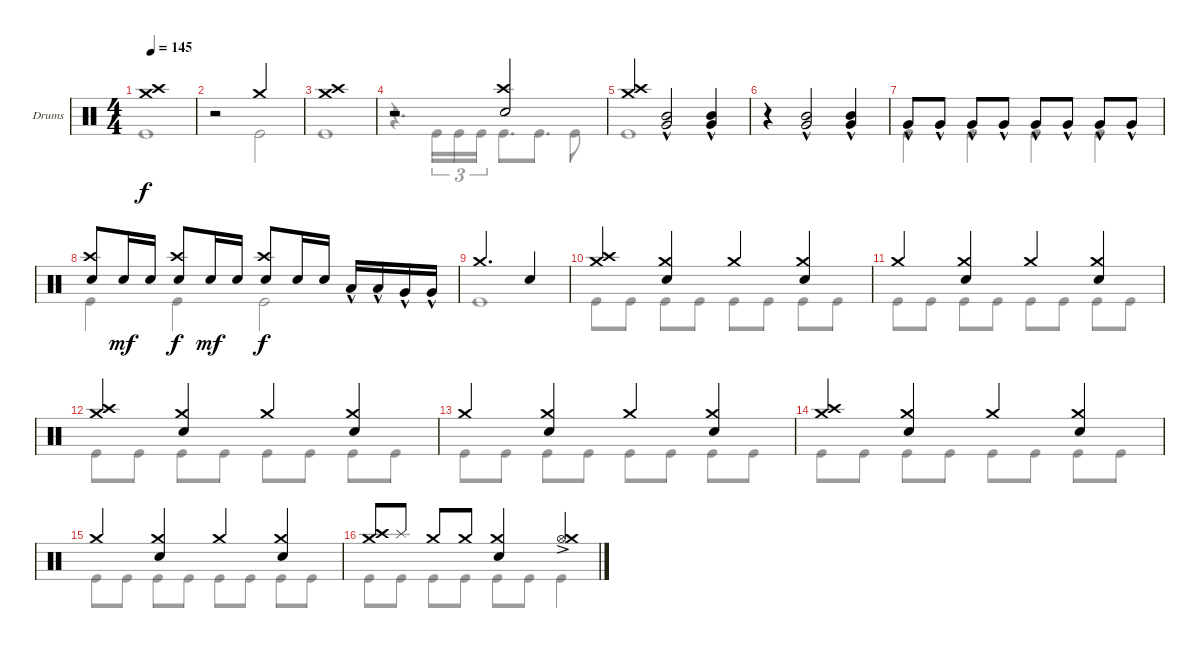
\defaultSystemsLayout 4
\bracketExtendMode groupsimilarinstruments
\firstSystemTrackNameOrientation horizontal
\otherSystemsTrackNameOrientation horizontal
\track ("Drumkit" "Drums") {instrument percussion}
\staff {score}
\articulation defaults
\voice
\ts (4 4)
\tempo 145
\clef neutral
\scale
1.02648
\ks c
("Crash medium (hit)" "Crash high (hit)").1{dy f} |
\scale
0.973518 r.2 "Crash medium (hit)".2 |
\scale
1.02648 ("Crash medium (hit)" "Crash high (hit)").1 |
\scale
0.973518 r.2 ("Crash high (hit)" "Snare (hit) 2").2 |
\scale
1.02648 ("Crash medium (hit)" "Crash high (hit)").4 ("Very Low Tom (hit)"{hac} "Mid Tom (hit)"{hac}).2 ("Mid Tom (hit)"{hac} "Very Low Tom (hit)"{hac}).4 |
\scale
0.973518 r.4 ("Very Low Tom (hit)"{hac} "Mid Tom (hit)"{hac}).2 ("Very Low Tom (hit)"{hac} "Mid Tom (hit)"{hac}).4 |
\scale
1.02648 "Very Low Tom (hit)"{hac}.8 "Very Low Tom (hit)"{hac}.8 "Very Low Tom (hit)"{hac}.8 "Very Low Tom (hit)"{hac}.8 "Very Low Tom (hit)"{hac}.8 "Very Low Tom (hit)"{hac}.8 "Very Low Tom (hit)"{hac}.8 "Very Low Tom (hit)"{hac}.8 |
\scale
0.973518 ("Snare (hit) 2" "Crash high (hit)").8 "Snare (hit) 2".16{dy mf} "Snare (hit) 2".16 ("Snare (hit) 2" "Crash high (hit)").8{dy f} "Snare (hit) 2".16{dy mf} "Snare (hit) 2".16 ("Snare (hit) 2" "Crash high (hit)").8{dy f} "Snare (hit) 2".16 "Snare (hit) 2".16 "Low Tom (hit)"{hac}.16 "Low Tom (hit)"{hac}.16 "Very Low Tom (hit)"{hac}.16 "Very Low Tom (hit)"{hac}.16 |
\scale
1.02648 "Crash medium (hit)".2{d} "Snare (hit) 2".4 |
\scale
0.973518 ("Crash medium (hit)" "Crash high (hit)").4 ("Crash medium (hit)" "Snare (hit) 2").4 "Crash medium (hit)".4 ("Crash medium (hit)" "Snare (hit) 2").4 |
\scale
1.02648 "Crash medium (hit)".4 ("Crash medium (hit)" "Snare (hit) 2").4 "Crash medium (hit)".4 ("Crash medium (hit)" "Snare (hit) 2").4 |
\scale
0.973518 ("Crash medium (hit)" "Crash high (hit)").4 ("Crash medium (hit)" "Snare (hit) 2").4 "Crash medium (hit)".4 ("Crash medium (hit)" "Snare (hit) 2").4 |
\scale
1.02648 "Crash medium (hit)".4 ("Crash medium (hit)" "Snare (hit) 2").4 "Crash medium (hit)".4 ("Crash medium (hit)" "Snare (hit) 2").4 |
\scale
0.973518 ("Crash medium (hit)" "Crash high (hit)").4 ("Crash medium (hit)" "Snare (hit) 2").4 "Crash medium (hit)".4 ("Crash medium (hit)" "Snare (hit) 2").4 |
\scale
1.02648 "Crash medium (hit)".4 ("Crash medium (hit)" "Snare (hit) 2").4 "Crash medium (hit)".4 ("Crash medium (hit)" "Snare (hit) 2").4 |
\scale
0.973518 ("Crash medium (hit)" "Crash high (hit)").8 "Splash (hit)".8 "Crash medium (hit)".8 "Crash medium (hit)".8 ("Crash medium (hit)" "Snare (hit) 2").4 ("Hi-Hat (open)"{ac} "Crash medium (hit)").4
\voice
\clef neutral
\ottava regular
\simile none
\scale
1.02648
\ks c "Kick (hit)".1{dy f}
|
\scale
0.973518 r.2 "Kick (hit)".2 |
\scale
1.02648 "Kick (hit)".1 |
\scale
0.973518 r.4{d} "Kick (hit)".16{tu (3 2)} "Kick (hit)".16{tu (3 2)} "Kick (hit)".16{tu (3 2)} "Kick (hit)".8{d} "Kick (hit)".8{d} "Kick (hit)".8 |
\scale
1.02648 "Kick (hit)".1 |
\scale
0.973518 |
\scale
1.02648 "Kick (hit)".4 "Kick (hit)".4 "Kick (hit)".4 "Kick (hit)".4 |
\scale
0.973518 "Kick (hit)".4 "Kick (hit)".4 "Kick (hit)".2 |
\scale
1.02648 "Kick (hit)".1 |
\scale
0.973518 "Kick (hit)".8 "Kick (hit)".8 "Kick (hit)".8 "Kick (hit)".8 "Kick (hit)".8 "Kick (hit)".8 "Kick (hit)".8 "Kick (hit)".8 |
\scale
1.02648 "Kick (hit)".8 "Kick (hit)".8 "Kick (hit)".8 "Kick (hit)".8 "Kick (hit)".8 "Kick (hit)".8 "Kick (hit)".8 "Kick (hit)".8 |
\scale
0.973518 "Kick (hit)".8 "Kick (hit)".8 "Kick (hit)".8 "Kick (hit)".8 "Kick (hit)".8 "Kick (hit)".8 "Kick (hit)".8 "Kick (hit)".8 |
\scale
1.02648 "Kick (hit)".8 "Kick (hit)".8 "Kick (hit)".8 "Kick (hit)".8 "Kick (hit)".8 "Kick (hit)".8 "Kick (hit)".8 "Kick (hit)".8 |
\scale
0.973518 "Kick (hit)".8 "Kick (hit)".8 "Kick (hit)".8 "Kick (hit)".8 "Kick (hit)".8 "Kick (hit)".8 "Kick (hit)".8 "Kick (hit)".8 |
\scale
1.02648 "Kick (hit)".8 "Kick (hit)".8 "Kick (hit)".8 "Kick (hit)".8 "Kick (hit)".8 "Kick (hit)".8 "Kick (hit)".8 "Kick (hit)".8 |
\scale
0.973518 "Kick (hit)".8 "Kick (hit)".8 "Kick (hit)".8 "Kick (hit)".8 "Kick (hit)".8 "Kick (hit)".8 "Kick (hit)".4
